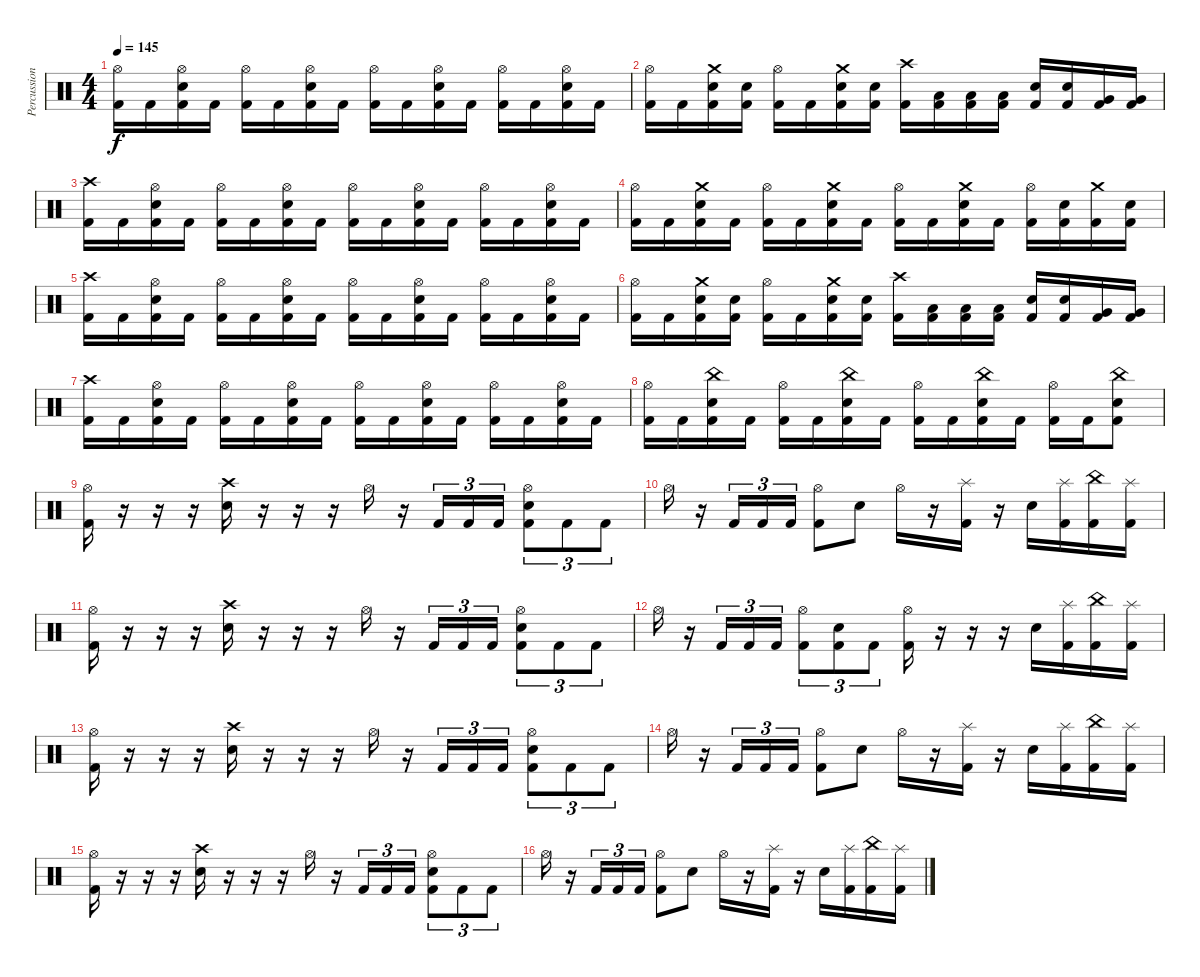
\track ("Percussion" "Percussion") {instrument percussion}
\staff {score}
\articulation defaults
\ts (4 4)
\tempo 145
\clef neutral
\ks c
("Hi-Hat (open)" "Kick (hit) 2").16{dy f} "Kick (hit) 2".16 ("Hi-Hat (open)" "Electric Snare (hit)" "Kick (hit) 2").16 "Kick (hit) 2".16 ("Hi-Hat (open)" "Kick (hit) 2").16 "Kick (hit) 2".16 ("Hi-Hat (open)" "Electric Snare (hit)" "Kick (hit) 2").16 "Kick (hit) 2".16 ("Hi-Hat (open)" "Kick (hit) 2").16 "Kick (hit) 2".16 ("Hi-Hat (open)" "Electric Snare (hit)" "Kick (hit) 2").16 "Kick (hit) 2".16 ("Hi-Hat (open)" "Kick (hit) 2").16 "Kick (hit) 2".16 ("Hi-Hat (open)" "Electric Snare (hit)" "Kick (hit) 2").16 "Kick (hit) 2".16 |
("Hi-Hat (open)" "Kick (hit) 2").16 "Kick (hit) 2".16 ("Crash medium (hit)" "Electric Snare (hit)" "Kick (hit) 2").16 ("Electric Snare (hit)" "Kick (hit) 2").16 ("Hi-Hat (open)" "Kick (hit) 2").16 "Kick (hit) 2".16 ("Crash medium (hit)" "Electric Snare (hit)" "Kick (hit) 2").16 ("Electric Snare (hit)" "Kick (hit) 2").16 ("Crash high (hit)" "Kick (hit) 2").16 ("Low Tom (hit)" "Kick (hit) 2").16 ("Low Tom (hit)" "Kick (hit) 2").16 ("Low Tom (hit)" "Kick (hit) 2").16 ("Electric Snare (hit)" "Kick (hit) 2").16 ("Electric Snare (hit)" "Kick (hit) 2").16 ("Very Low Tom (hit)" "Kick (hit) 2").16 ("Very Low Tom (hit)" "Kick (hit) 2").16 |
("Crash high (hit)" "Kick (hit) 2").16 "Kick (hit) 2".16 ("Hi-Hat (open)" "Electric Snare (hit)" "Kick (hit) 2").16 "Kick (hit) 2".16 ("Hi-Hat (open)" "Kick (hit) 2").16 "Kick (hit) 2".16 ("Hi-Hat (open)" "Electric Snare (hit)" "Kick (hit) 2").16 "Kick (hit) 2".16 ("Hi-Hat (open)" "Kick (hit) 2").16 "Kick (hit) 2".16 ("Hi-Hat (open)" "Electric Snare (hit)" "Kick (hit) 2").16 "Kick (hit) 2".16 ("Hi-Hat (open)" "Kick (hit) 2").16 "Kick (hit) 2".16 ("Hi-Hat (open)" "Electric Snare (hit)" "Kick (hit) 2").16 "Kick (hit) 2".16 |
("Hi-Hat (open)" "Kick (hit) 2").16 "Kick (hit) 2".16 ("Crash medium (hit)" "Electric Snare (hit)" "Kick (hit) 2").16 "Kick (hit) 2".16 ("Hi-Hat (open)" "Kick (hit) 2").16 "Kick (hit) 2".16 ("Crash medium (hit)" "Electric Snare (hit)" "Kick (hit) 2").16 "Kick (hit) 2".16 ("Hi-Hat (open)" "Kick (hit) 2").16 "Kick (hit) 2".16 ("Crash medium (hit)" "Electric Snare (hit)" "Kick (hit) 2").16 "Kick (hit) 2".16 ("Hi-Hat (open)" "Kick (hit) 2").16 ("Electric Snare (hit)" "Kick (hit) 2").16 ("Crash medium (hit)" "Kick (hit) 2").16 ("Electric Snare (hit)" "Kick (hit) 2").16 |
("Crash high (hit)" "Kick (hit) 2").16 "Kick (hit) 2".16 ("Hi-Hat (open)" "Electric Snare (hit)" "Kick (hit) 2").16 "Kick (hit) 2".16 ("Hi-Hat (open)" "Kick (hit) 2").16 "Kick (hit) 2".16 ("Hi-Hat (open)" "Electric Snare (hit)" "Kick (hit) 2").16 "Kick (hit) 2".16 ("Hi-Hat (open)" "Kick (hit) 2").16 "Kick (hit) 2".16 ("Hi-Hat (open)" "Electric Snare (hit)" "Kick (hit) 2").16 "Kick (hit) 2".16 ("Hi-Hat (open)" "Kick (hit) 2").16 "Kick (hit) 2".16 ("Hi-Hat (open)" "Electric Snare (hit)" "Kick (hit) 2").16 "Kick (hit) 2".16 |
("Hi-Hat (open)" "Kick (hit) 2").16 "Kick (hit) 2".16 ("Crash medium (hit)" "Electric Snare (hit)" "Kick (hit) 2").16 ("Electric Snare (hit)" "Kick (hit) 2").16 ("Hi-Hat (open)" "Kick (hit) 2").16 "Kick (hit) 2".16 ("Crash medium (hit)" "Electric Snare (hit)" "Kick (hit) 2").16 ("Electric Snare (hit)" "Kick (hit) 2").16 ("Crash high (hit)" "Kick (hit) 2").16 ("Low Tom (hit)" "Kick (hit) 2").16 ("Low Tom (hit)" "Kick (hit) 2").16 ("Low Tom (hit)" "Kick (hit) 2").16 ("Electric Snare (hit)" "Kick (hit) 2").16 ("Electric Snare (hit)" "Kick (hit) 2").16 ("Very Low Tom (hit)" "Kick (hit) 2").16 ("Very Low Tom (hit)" "Kick (hit) 2").16 |
("Crash high (hit)" "Kick (hit) 2").16 "Kick (hit) 2".16 ("Hi-Hat (open)" "Electric Snare (hit)" "Kick (hit) 2").16 "Kick (hit) 2".16 ("Hi-Hat (open)" "Kick (hit) 2").16 "Kick (hit) 2".16 ("Hi-Hat (open)" "Electric Snare (hit)" "Kick (hit) 2").16 "Kick (hit) 2".16 ("Hi-Hat (open)" "Kick (hit) 2").16 "Kick (hit) 2".16 ("Hi-Hat (open)" "Electric Snare (hit)" "Kick (hit) 2").16 "Kick (hit) 2".16 ("Hi-Hat (open)" "Kick (hit) 2").16 "Kick (hit) 2".16 ("Hi-Hat (open)" "Electric Snare (hit)" "Kick (hit) 2").16 "Kick (hit) 2".16 |
("Hi-Hat (open)" "Kick (hit) 2").16 "Kick (hit) 2".16 ("China (hit)" "Electric Snare (hit)" "Kick (hit) 2").16 "Kick (hit) 2".16 ("Hi-Hat (open)" "Kick (hit) 2").16 "Kick (hit) 2".16 ("China (hit)" "Electric Snare (hit)" "Kick (hit) 2").16 "Kick (hit) 2".16 ("Hi-Hat (open)" "Kick (hit) 2").16 "Kick (hit) 2".16 ("China (hit)" "Electric Snare (hit)" "Kick (hit) 2").16 "Kick (hit) 2".16 ("Hi-Hat (open)" "Kick (hit) 2").16 "Kick (hit) 2".16 ("China (hit)" "Electric Snare (hit)" "Kick (hit) 2").8 |
("Hi-Hat (open)" "Kick (hit) 2").16 r.16 r.16 r.16 ("Crash high (hit)" "Electric Snare (hit)").16 r.16 r.16 r.16 "Hi-Hat (open)".16 r.16 "Kick (hit) 2".16{tu (3 2)} "Kick (hit) 2".16{tu (3 2)} "Kick (hit) 2".16{tu (3 2)} ("Hi-Hat (open)" "Electric Snare (hit)" "Kick (hit) 2").8{tu (3 2)} "Kick (hit) 2".8{tu (3 2)} "Kick (hit) 2".8{tu (3 2)} |
"Hi-Hat (open)".16 r.16 "Kick (hit) 2".16{tu (3 2)} "Kick (hit) 2".16{tu (3 2)} "Kick (hit) 2".16{tu (3 2)} ("Hi-Hat (open)" "Kick (hit) 2").8 "Electric Snare (hit)".8 "Hi-Hat (open)".16 r.16 ("Splash (hit)" "Kick (hit) 2").16 r.16 "Electric Snare (hit)".16 ("Splash (hit)" "Kick (hit) 2").16 ("China (hit)" "Kick (hit) 2").16 ("Splash (hit)" "Kick (hit) 2").16 |
("Hi-Hat (open)" "Kick (hit) 2").16 r.16 r.16 r.16 ("Crash high (hit)" "Electric Snare (hit)").16 r.16 r.16 r.16 "Hi-Hat (open)".16 r.16 "Kick (hit) 2".16{tu (3 2)} "Kick (hit) 2".16{tu (3 2)} "Kick (hit) 2".16{tu (3 2)} ("Hi-Hat (open)" "Electric Snare (hit)" "Kick (hit) 2").8{tu (3 2)} "Kick (hit) 2".8{tu (3 2)} "Kick (hit) 2".8{tu (3 2)} |
"Hi-Hat (open)".16 r.16 "Kick (hit) 2".16{tu (3 2)} "Kick (hit) 2".16{tu (3 2)} "Kick (hit) 2".16{tu (3 2)} ("Hi-Hat (open)" "Kick (hit) 2").8{tu (3 2)} ("Electric Snare (hit)" "Kick (hit) 2").8{tu (3 2)} "Kick (hit) 2".8{tu (3 2)} ("Hi-Hat (open)" "Kick (hit) 2").16 r.16 r.16 r.16 "Electric Snare (hit)".16 ("Splash (hit)" "Kick (hit) 2").16 ("China (hit)" "Kick (hit) 2").16 ("Splash (hit)" "Kick (hit) 2").16 |
("Hi-Hat (open)" "Kick (hit) 2").16 r.16 r.16 r.16 ("Crash high (hit)" "Electric Snare (hit)").16 r.16 r.16 r.16 "Hi-Hat (open)".16 r.16 "Kick (hit) 2".16{tu (3 2)} "Kick (hit) 2".16{tu (3 2)} "Kick (hit) 2".16{tu (3 2)} ("Hi-Hat (open)" "Electric Snare (hit)" "Kick (hit) 2").8{tu (3 2)} "Kick (hit) 2".8{tu (3 2)} "Kick (hit) 2".8{tu (3 2)} |
"Hi-Hat (open)".16 r.16 "Kick (hit) 2".16{tu (3 2)} "Kick (hit) 2".16{tu (3 2)} "Kick (hit) 2".16{tu (3 2)} ("Hi-Hat (open)" "Kick (hit) 2").8 "Electric Snare (hit)".8 "Hi-Hat (open)".16 r.16 ("Splash (hit)" "Kick (hit) 2").16 r.16 "Electric Snare (hit)".16 ("Splash (hit)" "Kick (hit) 2").16 ("China (hit)" "Kick (hit) 2").16 ("Splash (hit)" "Kick (hit) 2").16 |
("Hi-Hat (open)" "Kick (hit) 2").16 r.16 r.16 r.16 ("Crash high (hit)" "Electric Snare (hit)").16 r.16 r.16 r.16 "Hi-Hat (open)".16 r.16 "Kick (hit) 2".16{tu (3 2)} "Kick (hit) 2".16{tu (3 2)} "Kick (hit) 2".16{tu (3 2)} ("Hi-Hat (open)" "Electric Snare (hit)" "Kick (hit) 2").8{tu (3 2)} "Kick (hit) 2".8{tu (3 2)} "Kick (hit) 2".8{tu (3 2)} |
"Hi-Hat (open)".16 r.16 "Kick (hit) 2".16{tu (3 2)} "Kick (hit) 2".16{tu (3 2)} "Kick (hit) 2".16{tu (3 2)} ("Hi-Hat (open)" "Kick (hit) 2").8 "Electric Snare (hit)".8 "Hi-Hat (open)".16 r.16 ("Splash (hit)" "Kick (hit) 2").16 r.16 "Electric Snare (hit)".16 ("Splash (hit)" "Kick (hit) 2").16 ("China (hit)" "Kick (hit) 2").16 ("Splash (hit)" "Kick (hit) 2").16
